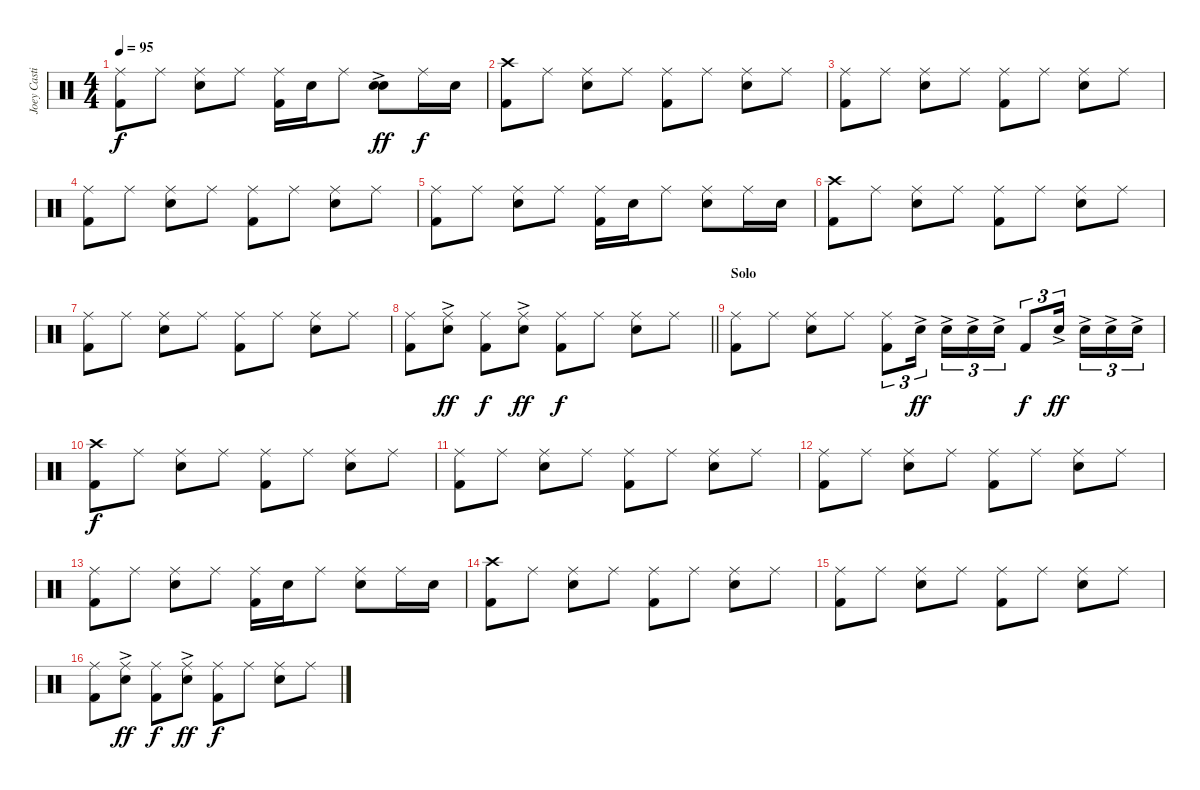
\track ("Joey Castillo" "Joey Casti") {instrument percussion}
\staff {score}
\articulation defaults
\ts (4 4)
\tempo 95
\clef neutral
\ks c
("Ride (middle)" "Kick (hit) 2").8{dy f} "Ride (middle)".8 ("Ride (middle)" "Snare (hit) 2").8 "Ride (middle)".8 ("Ride (middle)" "Kick (hit) 2").16 "Snare (hit) 2".16 "Ride (middle)".8 ("Snare (hit) 2"{ac} "Snare (hit) 2"{ac}).8{bd 240 dy ff} "Ride (middle)".16{dy f} "Snare (hit) 2".16 |
("Crash high (hit)" "Kick (hit) 2").8 "Ride (middle)".8 ("Ride (middle)" "Snare (hit) 2").8 "Ride (middle)".8 ("Ride (middle)" "Kick (hit) 2").8 "Ride (middle)".8 ("Ride (middle)" "Snare (hit) 2").8 "Ride (middle)".8 |
("Ride (middle)" "Kick (hit) 2").8 "Ride (middle)".8 ("Ride (middle)" "Snare (hit) 2").8 "Ride (middle)".8 ("Ride (middle)" "Kick (hit) 2").8 "Ride (middle)".8 ("Ride (middle)" "Snare (hit) 2").8 "Ride (middle)".8 |
("Ride (middle)" "Kick (hit) 2").8 "Ride (middle)".8 ("Ride (middle)" "Snare (hit) 2").8 "Ride (middle)".8 ("Ride (middle)" "Kick (hit) 2").8 "Ride (middle)".8 ("Ride (middle)" "Snare (hit) 2").8 "Ride (middle)".8 |
("Ride (middle)" "Kick (hit) 2").8 "Ride (middle)".8 ("Ride (middle)" "Snare (hit) 2").8 "Ride (middle)".8 ("Ride (middle)" "Kick (hit) 2").16 "Snare (hit) 2".16 "Ride (middle)".8 ("Ride (middle)" "Snare (hit) 2").8 "Ride (middle)".16 "Snare (hit) 2".16 |
("Crash high (hit)" "Kick (hit) 2").8 "Ride (middle)".8 ("Ride (middle)" "Snare (hit) 2").8 "Ride (middle)".8 ("Ride (middle)" "Kick (hit) 2").8 "Ride (middle)".8 ("Ride (middle)" "Snare (hit) 2").8 "Ride (middle)".8 |
("Ride (middle)" "Kick (hit) 2").8 "Ride (middle)".8 ("Ride (middle)" "Snare (hit) 2").8 "Ride (middle)".8 ("Ride (middle)" "Kick (hit) 2").8 "Ride (middle)".8 ("Ride (middle)" "Snare (hit) 2").8 "Ride (middle)".8 |
\barLineRight lightlight
("Ride (middle)" "Kick (hit) 2").8 ("Ride (middle)" "Snare (hit) 2"{ac}).8{dy ff} ("Ride (middle)" "Kick (hit) 2").8{dy f} ("Ride (middle)" "Snare (hit) 2"{ac}).8{dy ff} ("Ride (middle)" "Kick (hit) 2").8{dy f} "Ride (middle)".8 ("Ride (middle)" "Snare (hit) 2").8 "Ride (middle)".8 |
\section ("" "Solo")
("Ride (middle)" "Kick (hit) 2").8 "Ride (middle)".8 ("Ride (middle)" "Snare (hit) 2").8 "Ride (middle)".8 ("Ride (middle)" "Kick (hit) 2").8{tu (3 2)} "Snare (hit) 2"{ac}.16{tu (3 2) dy ff beam splitsecondary} "Snare (hit) 2"{ac}.16{tu (3 2)} "Snare (hit) 2"{ac}.16{tu (3 2)} "Snare (hit) 2"{ac}.16{tu (3 2)} "Kick (hit) 2".8{tu (3 2) dy f} "Snare (hit) 2"{ac}.16{tu (3 2) dy ff beam splitsecondary} "Snare (hit) 2"{ac}.16{tu (3 2)} "Snare (hit) 2"{ac}.16{tu (3 2)} "Snare (hit) 2"{ac}.16{tu (3 2)} |
("Crash high (hit)" "Kick (hit) 2").8{dy f} "Ride (middle)".8 ("Ride (middle)" "Snare (hit) 2").8 "Ride (middle)".8 ("Ride (middle)" "Kick (hit) 2").8 "Ride (middle)".8 ("Ride (middle)" "Snare (hit) 2").8 "Ride (middle)".8 |
("Ride (middle)" "Kick (hit) 2").8 "Ride (middle)".8 ("Ride (middle)" "Snare (hit) 2").8 "Ride (middle)".8 ("Ride (middle)" "Kick (hit) 2").8 "Ride (middle)".8 ("Ride (middle)" "Snare (hit) 2").8 "Ride (middle)".8 |
("Ride (middle)" "Kick (hit) 2").8 "Ride (middle)".8 ("Ride (middle)" "Snare (hit) 2").8 "Ride (middle)".8 ("Ride (middle)" "Kick (hit) 2").8 "Ride (middle)".8 ("Ride (middle)" "Snare (hit) 2").8 "Ride (middle)".8 |
("Ride (middle)" "Kick (hit) 2").8 "Ride (middle)".8 ("Ride (middle)" "Snare (hit) 2").8 "Ride (middle)".8 ("Ride (middle)" "Kick (hit) 2").16 "Snare (hit) 2".16 "Ride (middle)".8 ("Ride (middle)" "Snare (hit) 2").8 "Ride (middle)".16 "Snare (hit) 2".16 |
("Crash high (hit)" "Kick (hit) 2").8 "Ride (middle)".8 ("Ride (middle)" "Snare (hit) 2").8 "Ride (middle)".8 ("Ride (middle)" "Kick (hit) 2").8 "Ride (middle)".8 ("Ride (middle)" "Snare (hit) 2").8 "Ride (middle)".8 |
("Ride (middle)" "Kick (hit) 2").8 "Ride (middle)".8 ("Ride (middle)" "Snare (hit) 2").8 "Ride (middle)".8 ("Ride (middle)" "Kick (hit) 2").8 "Ride (middle)".8 ("Ride (middle)" "Snare (hit) 2").8 "Ride (middle)".8 |
("Ride (middle)" "Kick (hit) 2").8 ("Ride (middle)" "Snare (hit) 2"{ac}).8{dy ff} ("Ride (middle)" "Kick (hit) 2").8{dy f} ("Ride (middle)" "Snare (hit) 2"{ac}).8{dy ff} ("Ride (middle)" "Kick (hit) 2").8{dy f} "Ride (middle)".8 ("Ride (middle)" "Snare (hit) 2").8 "Ride (middle)".8
